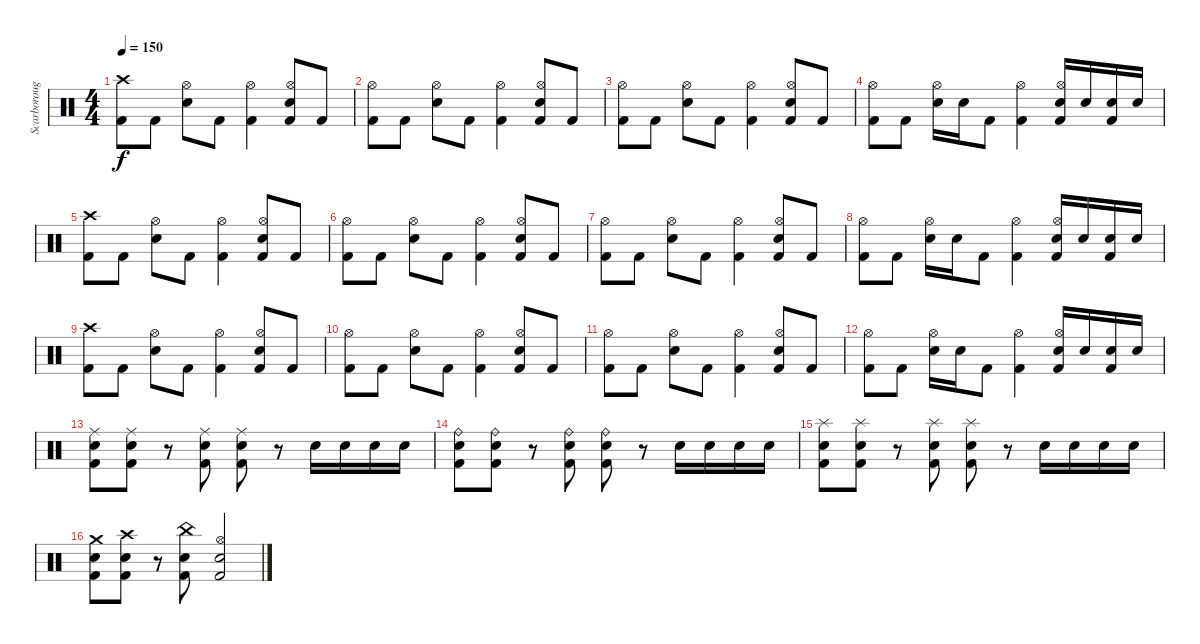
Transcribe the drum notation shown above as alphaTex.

\track ("Scarborough" "Scarboroug") {instrument percussion}
\staff {score}
\articulation defaults
\ts (4 4)
\tempo 150
\clef neutral
\ks c
("Crash high (hit)" "Kick (hit) 2").8{dy f} "Kick (hit) 2".8 ("Hi-Hat (open)" "Snare (hit) 2").8 "Kick (hit) 2".8 ("Hi-Hat (open)" "Kick (hit) 2").4 ("Hi-Hat (open)" "Kick (hit) 2" "Snare (hit) 2").8 "Kick (hit) 2".8 |
("Hi-Hat (open)" "Kick (hit) 2").8 "Kick (hit) 2".8 ("Hi-Hat (open)" "Snare (hit) 2").8 "Kick (hit) 2".8 ("Hi-Hat (open)" "Kick (hit) 2").4 ("Hi-Hat (open)" "Kick (hit) 2" "Snare (hit) 2").8 "Kick (hit) 2".8 |
("Hi-Hat (open)" "Kick (hit) 2").8 "Kick (hit) 2".8 ("Hi-Hat (open)" "Snare (hit) 2").8 "Kick (hit) 2".8 ("Hi-Hat (open)" "Kick (hit) 2").4 ("Hi-Hat (open)" "Kick (hit) 2" "Snare (hit) 2").8 "Kick (hit) 2".8 |
("Hi-Hat (open)" "Kick (hit) 2").8 "Kick (hit) 2".8 ("Hi-Hat (open)" "Snare (hit) 2").16 "Snare (hit) 2".16 "Kick (hit) 2".8 ("Hi-Hat (open)" "Kick (hit) 2").4 ("Hi-Hat (open)" "Kick (hit) 2" "Snare (hit) 2").16 "Snare (hit) 2".16 ("Kick (hit) 2" "Snare (hit) 2").16 "Snare (hit) 2".16 |
("Crash high (hit)" "Kick (hit) 2").8 "Kick (hit) 2".8 ("Hi-Hat (open)" "Snare (hit) 2").8 "Kick (hit) 2".8 ("Hi-Hat (open)" "Kick (hit) 2").4 ("Hi-Hat (open)" "Kick (hit) 2" "Snare (hit) 2").8 "Kick (hit) 2".8 |
("Hi-Hat (open)" "Kick (hit) 2").8 "Kick (hit) 2".8 ("Hi-Hat (open)" "Snare (hit) 2").8 "Kick (hit) 2".8 ("Hi-Hat (open)" "Kick (hit) 2").4 ("Hi-Hat (open)" "Kick (hit) 2" "Snare (hit) 2").8 "Kick (hit) 2".8 |
("Hi-Hat (open)" "Kick (hit) 2").8 "Kick (hit) 2".8 ("Hi-Hat (open)" "Snare (hit) 2").8 "Kick (hit) 2".8 ("Hi-Hat (open)" "Kick (hit) 2").4 ("Hi-Hat (open)" "Kick (hit) 2" "Snare (hit) 2").8 "Kick (hit) 2".8 |
("Hi-Hat (open)" "Kick (hit) 2").8 "Kick (hit) 2".8 ("Hi-Hat (open)" "Snare (hit) 2").16 "Snare (hit) 2".16 "Kick (hit) 2".8 ("Hi-Hat (open)" "Kick (hit) 2").4 ("Hi-Hat (open)" "Kick (hit) 2" "Snare (hit) 2").16 "Snare (hit) 2".16 ("Kick (hit) 2" "Snare (hit) 2").16 "Snare (hit) 2".16 |
("Crash high (hit)" "Kick (hit) 2").8 "Kick (hit) 2".8 ("Hi-Hat (open)" "Snare (hit) 2").8 "Kick (hit) 2".8 ("Hi-Hat (open)" "Kick (hit) 2").4 ("Hi-Hat (open)" "Kick (hit) 2" "Snare (hit) 2").8 "Kick (hit) 2".8 |
("Hi-Hat (open)" "Kick (hit) 2").8 "Kick (hit) 2".8 ("Hi-Hat (open)" "Snare (hit) 2").8 "Kick (hit) 2".8 ("Hi-Hat (open)" "Kick (hit) 2").4 ("Hi-Hat (open)" "Kick (hit) 2" "Snare (hit) 2").8 "Kick (hit) 2".8 |
("Hi-Hat (open)" "Kick (hit) 2").8 "Kick (hit) 2".8 ("Hi-Hat (open)" "Snare (hit) 2").8 "Kick (hit) 2".8 ("Hi-Hat (open)" "Kick (hit) 2").4 ("Hi-Hat (open)" "Kick (hit) 2" "Snare (hit) 2").8 "Kick (hit) 2".8 |
("Hi-Hat (open)" "Kick (hit) 2").8 "Kick (hit) 2".8 ("Hi-Hat (open)" "Snare (hit) 2").16 "Snare (hit) 2".16 "Kick (hit) 2".8 ("Hi-Hat (open)" "Kick (hit) 2").4 ("Hi-Hat (open)" "Kick (hit) 2" "Snare (hit) 2").16 "Snare (hit) 2".16 ("Kick (hit) 2" "Snare (hit) 2").16 "Snare (hit) 2".16 |
("Ride (middle)" "Kick (hit) 2" "Snare (hit) 2").8 ("Ride (middle)" "Kick (hit) 2" "Snare (hit) 2").8 r.8 ("Ride (middle)" "Kick (hit) 2" "Snare (hit) 2").8 ("Ride (middle)" "Kick (hit) 2" "Snare (hit) 2").8 r.8 "Snare (hit) 2".16 "Snare (hit) 2".16 "Snare (hit) 2".16 "Snare (hit) 2".16 |
("Ride (bell)" "Kick (hit) 2" "Snare (hit) 2").8 ("Ride (bell)" "Kick (hit) 2" "Snare (hit) 2").8 r.8 ("Ride (bell)" "Kick (hit) 2" "Snare (hit) 2").8 ("Ride (bell)" "Kick (hit) 2" "Snare (hit) 2").8 r.8 "Snare (hit) 2".16 "Snare (hit) 2".16 "Snare (hit) 2".16 "Snare (hit) 2".16 |
("Splash (hit)" "Kick (hit) 2" "Snare (hit) 2").8 ("Splash (hit)" "Kick (hit) 2" "Snare (hit) 2").8 r.8 ("Splash (hit)" "Kick (hit) 2" "Snare (hit) 2").8 ("Splash (hit)" "Kick (hit) 2" "Snare (hit) 2").8 r.8 "Snare (hit) 2".16 "Snare (hit) 2".16 "Snare (hit) 2".16 "Snare (hit) 2".16 |
("Crash medium (hit)" "Kick (hit) 2" "Snare (hit) 2").8 ("Crash high (hit)" "Kick (hit) 2" "Snare (hit) 2").8 r.8 ("China (hit)" "Kick (hit) 2" "Snare (hit) 2").8 ("Hi-Hat (open)" "Kick (hit) 2" "Snare (hit) 2").2
